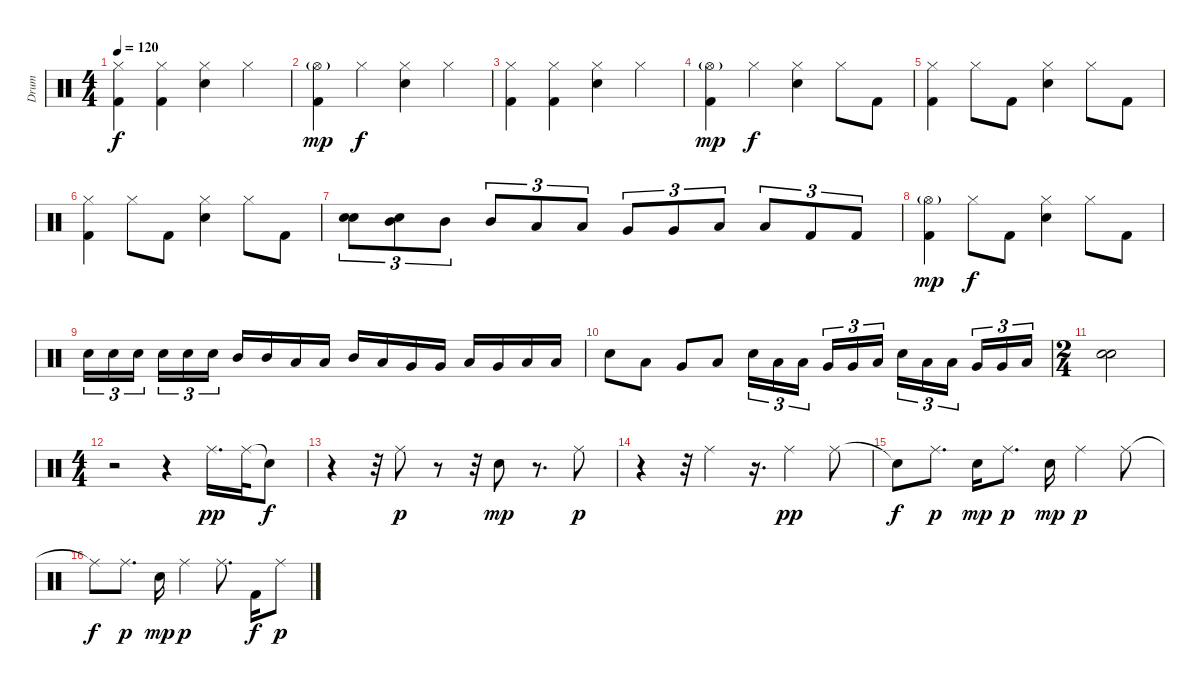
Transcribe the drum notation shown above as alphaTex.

\track ("Drum" "Drum") {instrument percussion}
\staff {score}
\articulation defaults
\ts (4 4)
\tempo 120
\clef neutral
\ks c
("Hi-Hat (closed)" "Kick (hit) 2").4{dy f} ("Hi-Hat (closed)" "Kick (hit) 2").4 ("Hi-Hat (closed)" "Electric Snare (hit)").4 "Hi-Hat (closed)".4 |
("Hi-Hat (open)"{g} "Kick (hit) 2").4{dy mp} "Hi-Hat (closed)".4{dy f} ("Hi-Hat (closed)" "Electric Snare (hit)").4 "Hi-Hat (closed)".4 |
("Hi-Hat (closed)" "Kick (hit) 2").4 ("Hi-Hat (closed)" "Kick (hit) 2").4 ("Hi-Hat (closed)" "Electric Snare (hit)").4 "Hi-Hat (closed)".4 |
("Hi-Hat (open)"{g} "Kick (hit) 2").4{dy mp} "Hi-Hat (closed)".4{dy f} ("Hi-Hat (closed)" "Electric Snare (hit)").4 "Hi-Hat (closed)".8 "Kick (hit) 2".8 |
("Hi-Hat (closed)" "Kick (hit) 2").4 "Hi-Hat (closed)".8 "Kick (hit) 2".8 ("Hi-Hat (closed)" "Electric Snare (hit)").4 "Hi-Hat (closed)".8 "Kick (hit) 2".8 |
("Hi-Hat (closed)" "Kick (hit) 2").4 "Hi-Hat (closed)".8 "Kick (hit) 2".8 ("Hi-Hat (closed)" "Electric Snare (hit)").4 "Hi-Hat (closed)".8 "Kick (hit) 2".8 |
("Electric Snare (hit)" "Electric Snare (hit)").8{tu (3 2) bd 120} ("Mid Tom (hit)" "Electric Snare (hit)").8{tu (3 2)} "Mid Tom (hit)".8{tu (3 2)} "Mid Tom (hit)".8{tu (3 2)} "Low Tom (hit)".8{tu (3 2)} "Low Tom (hit)".8{tu (3 2)} "Very Low Tom (hit)".8{tu (3 2)} "Very Low Tom (hit)".8{tu (3 2)} "Low Floor Tom (hit)".8{tu (3 2)} "Low Floor Tom (hit)".8{tu (3 2)} "Kick (hit) 2".8{tu (3 2)} "Kick (hit) 2".8{tu (3 2)} |
("Hi-Hat (open)"{g} "Kick (hit) 2").4{dy mp} "Hi-Hat (closed)".8{dy f} "Kick (hit) 2".8 ("Hi-Hat (closed)" "Electric Snare (hit)").4 "Hi-Hat (closed)".8 "Kick (hit) 2".8 |
"Electric Snare (hit)".16{tu (3 2)} "Electric Snare (hit)".16{tu (3 2)} "Electric Snare (hit)".16{tu (3 2)} "Electric Snare (hit)".16{tu (3 2)} "Electric Snare (hit)".16{tu (3 2)} "Electric Snare (hit)".16{tu (3 2)} "Mid Tom (hit)".16 "Mid Tom (hit)".16 "Low Tom (hit)".16 "Low Tom (hit)".16 "Mid Tom (hit)".16 "Low Tom (hit)".16 "Very Low Tom (hit)".16 "Very Low Tom (hit)".16 "Low Tom (hit)".16 "Very Low Tom (hit)".16 "Low Floor Tom (hit)".16 "Low Floor Tom (hit)".16 |
"Electric Snare (hit)".8 "Low Tom (hit)".8 "Very Low Tom (hit)".8 "Low Floor Tom (hit)".8 "Electric Snare (hit)".16{tu (3 2)} "Low Tom (hit)".16{tu (3 2)} "Low Tom (hit)".16{tu (3 2)} "Very Low Tom (hit)".16{tu (3 2)} "Very Low Tom (hit)".16{tu (3 2)} "Low Floor Tom (hit)".16{tu (3 2)} "Electric Snare (hit)".16{tu (3 2)} "Low Tom (hit)".16{tu (3 2)} "Low Tom (hit)".16{tu (3 2)} "Very Low Tom (hit)".16{tu (3 2)} "Very Low Tom (hit)".16{tu (3 2)} "Low Floor Tom (hit)".16{tu (3 2)} |
\ts (2 4)
("Electric Snare (hit)" "Electric Snare (hit)").2{bd 240} |
\ts (4 4)
r.2 r.4 "Ride (middle)".16{d dy pp} "Ride (middle)".32 "Snare (hit)"{t}.8{dy f} |
r.4 r.32 "Ride (middle)".8{dy p} r.8 r.32 "Electric Snare (hit)".8{dy mp} r.8{d} "Ride (middle)".8{dy p} |
r.4 r.32 "Ride (middle)".4 r.16{d} "Ride (middle)".4{dy pp} "Ride (middle)".8 |
"Snare (hit)"{t}.8{dy f} "Ride (middle)".8{d dy p} "Electric Snare (hit)".16{dy mp} "Ride (middle)".8{d dy p} "Electric Snare (hit)".16{dy mp} "Ride (middle)".4{dy p} "Ride (middle)".8 |
"Ride (middle)"{t}.8{dy f} "Ride (middle)".8{d dy p} "Electric Snare (hit)".16{dy mp} "Ride (middle)".4{dy p} "Ride (middle)".8{d} "Kick (hit) 2".16{dy f} "Ride (middle)".8{dy p}
